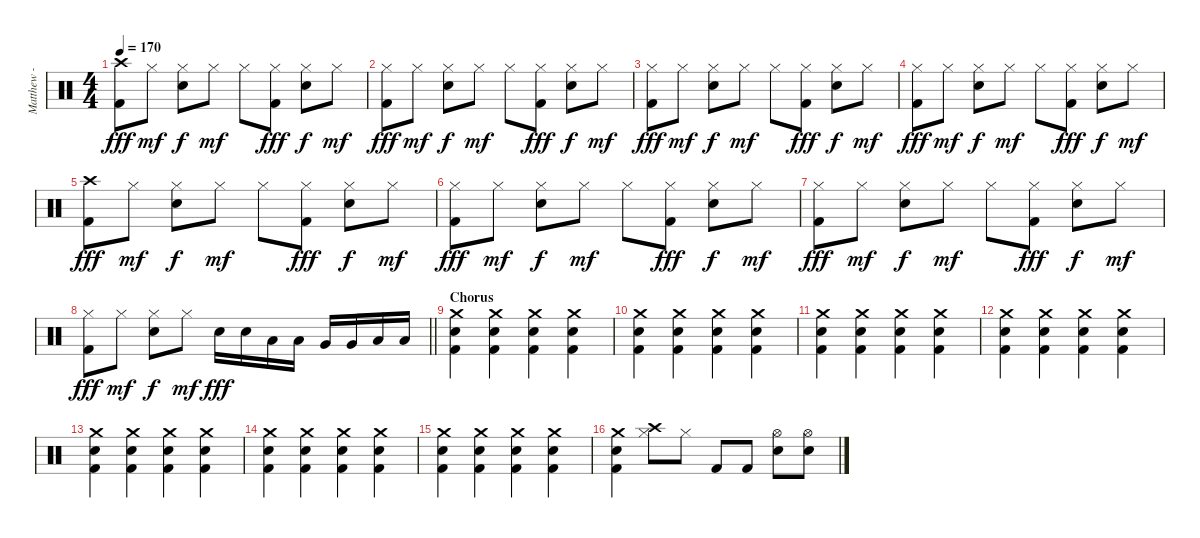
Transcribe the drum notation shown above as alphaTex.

\track ("Matthew - Drums" "Matthew - ") {instrument percussion}
\staff {score}
\articulation defaults
\ts (4 4)
\tempo 170
\clef neutral
\ks c
("Crash high (hit)" "Kick (hit) 2").8{dy fff} "Hi-Hat (closed)".8{dy mf} ("Hi-Hat (closed)" "Electric Snare (hit)").8{dy f} "Hi-Hat (closed)".8{dy mf} "Hi-Hat (closed)".8 ("Hi-Hat (closed)" "Kick (hit) 2").8{dy fff} ("Hi-Hat (closed)" "Electric Snare (hit)").8{dy f} "Hi-Hat (closed)".8{dy mf} |
("Hi-Hat (closed)" "Kick (hit) 2").8{dy fff} "Hi-Hat (closed)".8{dy mf} ("Hi-Hat (closed)" "Electric Snare (hit)").8{dy f} "Hi-Hat (closed)".8{dy mf} "Hi-Hat (closed)".8 ("Hi-Hat (closed)" "Kick (hit) 2").8{dy fff} ("Hi-Hat (closed)" "Electric Snare (hit)").8{dy f} "Hi-Hat (closed)".8{dy mf} |
("Hi-Hat (closed)" "Kick (hit) 2").8{dy fff} "Hi-Hat (closed)".8{dy mf} ("Hi-Hat (closed)" "Electric Snare (hit)").8{dy f} "Hi-Hat (closed)".8{dy mf} "Hi-Hat (closed)".8 ("Hi-Hat (closed)" "Kick (hit) 2").8{dy fff} ("Hi-Hat (closed)" "Electric Snare (hit)").8{dy f} "Hi-Hat (closed)".8{dy mf} |
("Hi-Hat (closed)" "Kick (hit) 2").8{dy fff} "Hi-Hat (closed)".8{dy mf} ("Hi-Hat (closed)" "Electric Snare (hit)").8{dy f} "Hi-Hat (closed)".8{dy mf} "Hi-Hat (closed)".8 ("Hi-Hat (closed)" "Kick (hit) 2").8{dy fff} ("Hi-Hat (closed)" "Electric Snare (hit)").8{dy f} "Hi-Hat (closed)".8{dy mf} |
("Crash high (hit)" "Kick (hit) 2").8{dy fff} "Hi-Hat (closed)".8{dy mf} ("Hi-Hat (closed)" "Electric Snare (hit)").8{dy f} "Hi-Hat (closed)".8{dy mf} "Hi-Hat (closed)".8 ("Hi-Hat (closed)" "Kick (hit) 2").8{dy fff} ("Hi-Hat (closed)" "Electric Snare (hit)").8{dy f} "Hi-Hat (closed)".8{dy mf} |
("Hi-Hat (closed)" "Kick (hit) 2").8{dy fff} "Hi-Hat (closed)".8{dy mf} ("Hi-Hat (closed)" "Electric Snare (hit)").8{dy f} "Hi-Hat (closed)".8{dy mf} "Hi-Hat (closed)".8 ("Hi-Hat (closed)" "Kick (hit) 2").8{dy fff} ("Hi-Hat (closed)" "Electric Snare (hit)").8{dy f} "Hi-Hat (closed)".8{dy mf} |
("Hi-Hat (closed)" "Kick (hit) 2").8{dy fff} "Hi-Hat (closed)".8{dy mf} ("Hi-Hat (closed)" "Electric Snare (hit)").8{dy f} "Hi-Hat (closed)".8{dy mf} "Hi-Hat (closed)".8 ("Hi-Hat (closed)" "Kick (hit) 2").8{dy fff} ("Hi-Hat (closed)" "Electric Snare (hit)").8{dy f} "Hi-Hat (closed)".8{dy mf} |
\barLineRight lightlight
("Hi-Hat (closed)" "Kick (hit) 2").8{dy fff} "Hi-Hat (closed)".8{dy mf} ("Hi-Hat (closed)" "Electric Snare (hit)").8{dy f} "Hi-Hat (closed)".8{dy mf} "Electric Snare (hit)".16{dy fff} "Electric Snare (hit)".16 "Low Tom (hit)".16 "Low Tom (hit)".16 "Very Low Tom (hit)".16 "Very Low Tom (hit)".16 "Low Floor Tom (hit)".16 "Low Floor Tom (hit)".16 |
\section ("" "Chorus")
("Crash medium (hit)" "Electric Snare (hit)" "Kick (hit) 2").4 ("Crash medium (hit)" "Electric Snare (hit)" "Kick (hit) 2").4 ("Crash medium (hit)" "Electric Snare (hit)" "Kick (hit) 2").4 ("Crash medium (hit)" "Electric Snare (hit)" "Kick (hit) 2").4 |
("Crash medium (hit)" "Electric Snare (hit)" "Kick (hit) 2").4 ("Crash medium (hit)" "Electric Snare (hit)" "Kick (hit) 2").4 ("Crash medium (hit)" "Electric Snare (hit)" "Kick (hit) 2").4 ("Crash medium (hit)" "Electric Snare (hit)" "Kick (hit) 2").4 |
("Crash medium (hit)" "Electric Snare (hit)" "Kick (hit) 2").4 ("Crash medium (hit)" "Electric Snare (hit)" "Kick (hit) 2").4 ("Crash medium (hit)" "Electric Snare (hit)" "Kick (hit) 2").4 ("Crash medium (hit)" "Electric Snare (hit)" "Kick (hit) 2").4 |
("Crash medium (hit)" "Electric Snare (hit)" "Kick (hit) 2").4 ("Crash medium (hit)" "Electric Snare (hit)" "Kick (hit) 2").4 ("Crash medium (hit)" "Electric Snare (hit)" "Kick (hit) 2").4 ("Crash medium (hit)" "Electric Snare (hit)" "Kick (hit) 2").4 |
("Crash medium (hit)" "Electric Snare (hit)" "Kick (hit) 2").4 ("Crash medium (hit)" "Electric Snare (hit)" "Kick (hit) 2").4 ("Crash medium (hit)" "Electric Snare (hit)" "Kick (hit) 2").4 ("Crash medium (hit)" "Electric Snare (hit)" "Kick (hit) 2").4 |
("Crash medium (hit)" "Electric Snare (hit)" "Kick (hit) 2").4 ("Crash medium (hit)" "Electric Snare (hit)" "Kick (hit) 2").4 ("Crash medium (hit)" "Electric Snare (hit)" "Kick (hit) 2").4 ("Crash medium (hit)" "Electric Snare (hit)" "Kick (hit) 2").4 |
("Crash medium (hit)" "Electric Snare (hit)" "Kick (hit) 2").4 ("Crash medium (hit)" "Electric Snare (hit)" "Kick (hit) 2").4 ("Crash medium (hit)" "Electric Snare (hit)" "Kick (hit) 2").4 ("Crash medium (hit)" "Electric Snare (hit)" "Kick (hit) 2").4 |
("Crash medium (hit)" "Electric Snare (hit)" "Kick (hit) 2").4 ("Crash high (hit)" "Hi-Hat (closed)").8 "Hi-Hat (closed)".8 "Kick (hit) 2".8 "Kick (hit) 2".8 ("Hi-Hat (open)" "Electric Snare (hit)").8 ("Hi-Hat (open)" "Electric Snare (hit)").8
